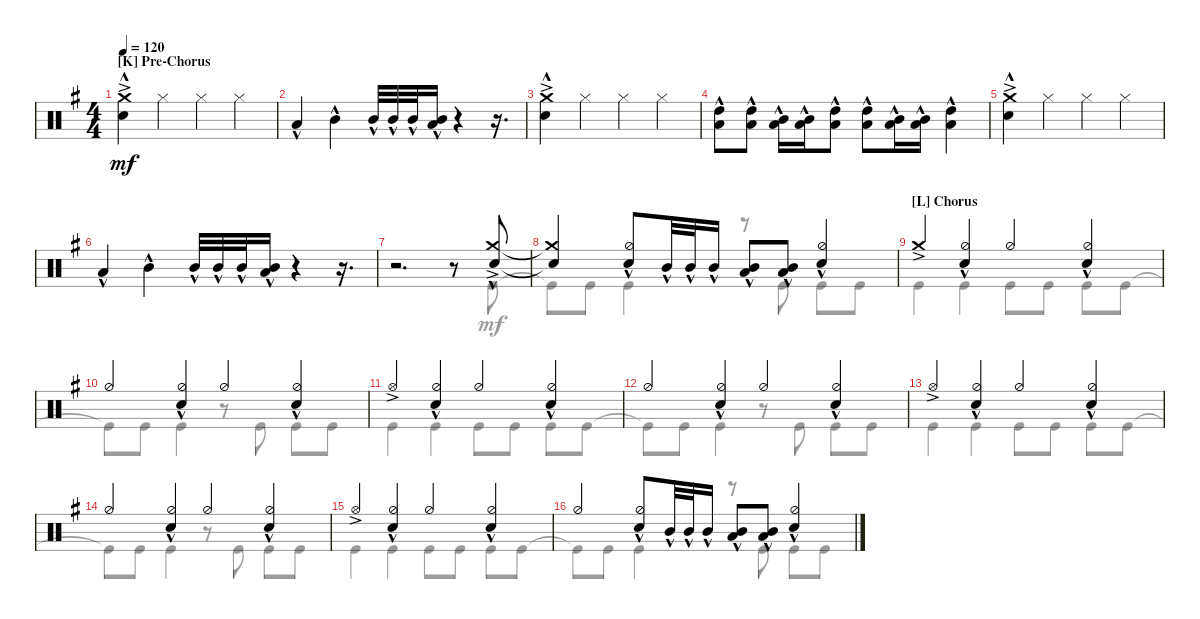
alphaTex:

\defaultSystemsLayout 4
\bracketExtendMode groupsimilarinstruments
\singleTrackTrackNamePolicy hidden
\multiTrackTrackNamePolicy hidden
\firstSystemTrackNameOrientation horizontal
\otherSystemsTrackNameOrientation horizontal
\track ("Maksim Udalov" "Drums") {instrument percussion}
\staff {score}
\articulation defaults
\voice
\ts (4 4)
\section ("K" "Pre-Chorus")
\tempo 120
\clef neutral
\scale
1.02648
\ks g
("Crash medium (hit)"{ac} "Snare (hit) 2"{hac}).4{dy mf} "Hi-Hat (closed)".4 "Hi-Hat (closed)".4 "Hi-Hat (closed)".4 |
\scale
0.973518 "Low Tom (hit)"{hac}.4 "Mid Tom (hit)"{hac}.4 "Mid Tom (hit)"{hac}.32 "Mid Tom (hit)"{hac}.32 "Mid Tom (hit)"{hac}.32 ("Mid Tom (hit)"{hac} "Low Tom (hit)"{hac}).16 r.4 r.16{d} |
\scale
1.02648 ("Crash medium (hit)"{ac} "Snare (hit) 2"{hac}).4 "Hi-Hat (closed)".4 "Hi-Hat (closed)".4 "Hi-Hat (closed)".4 |
\scale
0.973518 ("High Tom (hit)"{hac} "Low Tom (hit)"{hac}).8 ("Low Tom (hit)"{hac} "High Tom (hit)"{hac}).8 ("Low Tom (hit)"{hac} "Mid Tom (hit)"{hac}).16 ("Low Tom (hit)"{hac} "Mid Tom (hit)"{hac}).16 ("Low Tom (hit)"{hac} "High Tom (hit)"{hac}).8 ("Low Tom (hit)"{hac} "High Tom (hit)"{hac}).8 ("Low Tom (hit)"{hac} "Mid Tom (hit)"{hac}).16 ("Low Tom (hit)"{hac} "Mid Tom (hit)"{hac}).16 ("Low Tom (hit)"{hac} "High Tom (hit)"{hac}).4 |
\scale
1.02648 ("Crash medium (hit)"{ac} "Snare (hit) 2"{hac}).4 "Hi-Hat (closed)".4 "Hi-Hat (closed)".4 "Hi-Hat (closed)".4 |
\scale
0.973518 "Low Tom (hit)"{hac}.4 "Mid Tom (hit)"{hac}.4 "Mid Tom (hit)"{hac}.32 "Mid Tom (hit)"{hac}.32 "Mid Tom (hit)"{hac}.32 ("Mid Tom (hit)"{hac} "Low Tom (hit)"{hac}).16 r.4 r.16{d} |
\scale
1.02648 r.2{d} r.8 ("Crash medium (hit)"{ac} "Snare (hit) 2"{hac}).8 |
\scale
0.973518 ("Crash medium (hit)"{t} "Snare (hit) 2"{t}).4 ("Hi-Hat (half)" "Snare (hit) 2"{hac}).8 "Mid Tom (hit)"{hac}.32 "Mid Tom (hit)"{hac}.32 "Mid Tom (hit)"{hac}.16 ("Low Tom (hit)"{hac} "Mid Tom (hit)"{hac}).8 ("Low Tom (hit)"{hac} "Mid Tom (hit)"{hac}).8 ("Snare (hit) 2"{hac} "Hi-Hat (half)").4 |
\section ("L" "Chorus")
\scale
1.02648 "Crash medium (hit)"{ac}.4 ("Snare (hit) 2"{hac} "Hi-Hat (half)").4 "Hi-Hat (half)".4 ("Snare (hit) 2"{hac} "Hi-Hat (half)").4 |
\scale
0.973518 "Hi-Hat (half)".4 ("Hi-Hat (half)" "Snare (hit) 2"{hac}).4 "Hi-Hat (half)".4 ("Hi-Hat (half)" "Snare (hit) 2"{hac}).4 |
\scale
1.02648 "Hi-Hat (open)"{ac}.4 ("Snare (hit) 2"{hac} "Hi-Hat (half)").4 "Hi-Hat (half)".4 ("Snare (hit) 2"{hac} "Hi-Hat (half)").4 |
\scale
0.973518 "Hi-Hat (half)".4 ("Hi-Hat (half)" "Snare (hit) 2"{hac}).4 "Hi-Hat (half)".4 ("Hi-Hat (half)" "Snare (hit) 2"{hac}).4 |
\scale
1.02648 "Hi-Hat (open)"{ac}.4 ("Snare (hit) 2"{hac} "Hi-Hat (half)").4 "Hi-Hat (half)".4 ("Snare (hit) 2"{hac} "Hi-Hat (half)").4 |
\scale
0.973518 "Hi-Hat (half)".4 ("Hi-Hat (half)" "Snare (hit) 2"{hac}).4 "Hi-Hat (half)".4 ("Hi-Hat (half)" "Snare (hit) 2"{hac}).4 |
\scale
1.02648 "Hi-Hat (open)"{ac}.4 ("Snare (hit) 2"{hac} "Hi-Hat (half)").4 "Hi-Hat (half)".4 ("Snare (hit) 2"{hac} "Hi-Hat (half)").4 |
\scale
0.973518 "Hi-Hat (half)".4 ("Hi-Hat (half)" "Snare (hit) 2"{hac}).8 "Mid Tom (hit)"{hac}.32 "Mid Tom (hit)"{hac}.32 "Mid Tom (hit)"{hac}.16 ("Low Tom (hit)"{hac} "Mid Tom (hit)"{hac}).8 ("Low Tom (hit)"{hac} "Mid Tom (hit)"{hac}).8 ("Snare (hit) 2"{hac} "Hi-Hat (half)").4
\voice
\clef neutral
\ottava regular
\simile none
\scale
1.02648
\ks g
|
\scale
0.973518 |
\scale
1.02648 |
\scale
0.973518 |
\scale
1.02648 |
\scale
0.973518 |
\scale
1.02648 r.2{d} r.8 "Kick (hit)".8 |
\scale
0.973518 "Kick (hit)"{t}.8 "Kick (hit)".8 "Kick (hit)".4 r.8 "Kick (hit)".8 "Kick (hit)".8 "Kick (hit)".8 |
\scale
1.02648 "Kick (hit)".4 "Kick (hit)".4 "Kick (hit)".8 "Kick (hit)".8 "Kick (hit)".8 "Kick (hit)".8 |
\scale
0.973518 "Kick (hit)"{t}.8 "Kick (hit)".8 "Kick (hit)".4 r.8 "Kick (hit)".8 "Kick (hit)".8 "Kick (hit)".8 |
\scale
1.02648 "Kick (hit)".4 "Kick (hit)".4 "Kick (hit)".8 "Kick (hit)".8 "Kick (hit)".8 "Kick (hit)".8 |
\scale
0.973518 "Kick (hit)"{t}.8 "Kick (hit)".8 "Kick (hit)".4 r.8 "Kick (hit)".8 "Kick (hit)".8 "Kick (hit)".8 |
\scale
1.02648 "Kick (hit)".4 "Kick (hit)".4 "Kick (hit)".8 "Kick (hit)".8 "Kick (hit)".8 "Kick (hit)".8 |
\scale
0.973518 "Kick (hit)"{t}.8 "Kick (hit)".8 "Kick (hit)".4 r.8 "Kick (hit)".8 "Kick (hit)".8 "Kick (hit)".8 |
\scale
1.02648 "Kick (hit)".4 "Kick (hit)".4 "Kick (hit)".8 "Kick (hit)".8 "Kick (hit)".8 "Kick (hit)".8 |
\scale
0.973518 "Kick (hit)"{t}.8 "Kick (hit)".8 "Kick (hit)".4 r.8 "Kick (hit)".8 "Kick (hit)".8 "Kick (hit)".8
